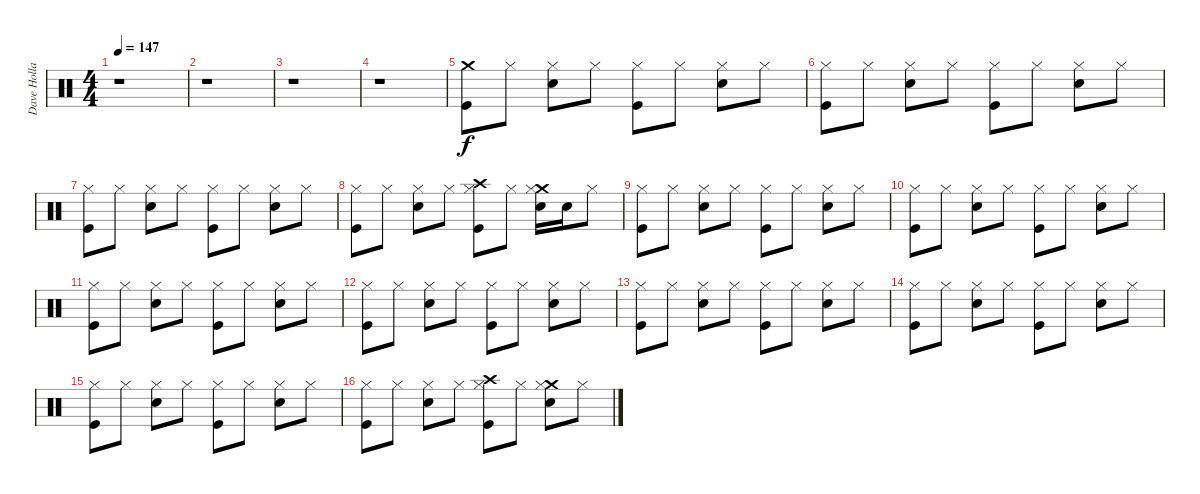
\track ("Dave Holland" "Dave Holla") {instrument percussion}
\staff {score}
\articulation defaults
\ts (4 4)
\tempo 147
\clef neutral
\ks c
r.1{dy f} |
r.1 |
r.1 |
r.1 |
("Kick (hit)" "Crash medium (hit)").8 "Hi-Hat (closed)".8 ("Electric Snare (hit)" "Hi-Hat (closed)").8 "Hi-Hat (closed)".8 ("Kick (hit)" "Hi-Hat (closed)").8 "Hi-Hat (closed)".8 ("Electric Snare (hit)" "Hi-Hat (closed)").8 "Hi-Hat (closed)".8 |
("Kick (hit)" "Hi-Hat (closed)").8 "Hi-Hat (closed)".8 ("Electric Snare (hit)" "Hi-Hat (closed)").8 "Hi-Hat (closed)".8 ("Kick (hit)" "Hi-Hat (closed)").8 "Hi-Hat (closed)".8 ("Electric Snare (hit)" "Hi-Hat (closed)").8 "Hi-Hat (closed)".8 |
("Kick (hit)" "Hi-Hat (closed)").8 "Hi-Hat (closed)".8 ("Electric Snare (hit)" "Hi-Hat (closed)").8 "Hi-Hat (closed)".8 ("Kick (hit)" "Hi-Hat (closed)").8 "Hi-Hat (closed)".8 ("Electric Snare (hit)" "Hi-Hat (closed)").8 "Hi-Hat (closed)".8 |
("Kick (hit)" "Hi-Hat (closed)").8 "Hi-Hat (closed)".8 ("Electric Snare (hit)" "Hi-Hat (closed)").8 "Hi-Hat (closed)".8 ("Kick (hit)" "Crash high (hit)" "Hi-Hat (closed)").8 "Hi-Hat (closed)".8 ("Electric Snare (hit)" "Crash medium (hit)" "Hi-Hat (closed)").16 "Electric Snare (hit)".16 "Hi-Hat (closed)".8 |
("Kick (hit)" "Hi-Hat (closed)").8 "Hi-Hat (closed)".8 ("Electric Snare (hit)" "Hi-Hat (closed)").8 "Hi-Hat (closed)".8 ("Kick (hit)" "Hi-Hat (closed)").8 "Hi-Hat (closed)".8 ("Electric Snare (hit)" "Hi-Hat (closed)").8 "Hi-Hat (closed)".8 |
("Kick (hit)" "Hi-Hat (closed)").8 "Hi-Hat (closed)".8 ("Electric Snare (hit)" "Hi-Hat (closed)").8 "Hi-Hat (closed)".8 ("Kick (hit)" "Hi-Hat (closed)").8 "Hi-Hat (closed)".8 ("Electric Snare (hit)" "Hi-Hat (closed)").8 "Hi-Hat (closed)".8 |
("Kick (hit)" "Hi-Hat (closed)").8 "Hi-Hat (closed)".8 ("Electric Snare (hit)" "Hi-Hat (closed)").8 "Hi-Hat (closed)".8 ("Kick (hit)" "Hi-Hat (closed)").8 "Hi-Hat (closed)".8 ("Electric Snare (hit)" "Hi-Hat (closed)").8 "Hi-Hat (closed)".8 |
("Kick (hit)" "Hi-Hat (closed)").8 "Hi-Hat (closed)".8 ("Electric Snare (hit)" "Hi-Hat (closed)").8 "Hi-Hat (closed)".8 ("Kick (hit)" "Hi-Hat (closed)").8 "Hi-Hat (closed)".8 ("Electric Snare (hit)" "Hi-Hat (closed)").8 "Hi-Hat (closed)".8 |
("Kick (hit)" "Hi-Hat (closed)").8 "Hi-Hat (closed)".8 ("Electric Snare (hit)" "Hi-Hat (closed)").8 "Hi-Hat (closed)".8 ("Kick (hit)" "Hi-Hat (closed)").8 "Hi-Hat (closed)".8 ("Electric Snare (hit)" "Hi-Hat (closed)").8 "Hi-Hat (closed)".8 |
("Kick (hit)" "Hi-Hat (closed)").8 "Hi-Hat (closed)".8 ("Electric Snare (hit)" "Hi-Hat (closed)").8 "Hi-Hat (closed)".8 ("Kick (hit)" "Hi-Hat (closed)").8 "Hi-Hat (closed)".8 ("Electric Snare (hit)" "Hi-Hat (closed)").8 "Hi-Hat (closed)".8 |
("Kick (hit)" "Hi-Hat (closed)").8 "Hi-Hat (closed)".8 ("Electric Snare (hit)" "Hi-Hat (closed)").8 "Hi-Hat (closed)".8 ("Kick (hit)" "Hi-Hat (closed)").8 "Hi-Hat (closed)".8 ("Electric Snare (hit)" "Hi-Hat (closed)").8 "Hi-Hat (closed)".8 |
("Kick (hit)" "Hi-Hat (closed)").8 "Hi-Hat (closed)".8 ("Electric Snare (hit)" "Hi-Hat (closed)").8 "Hi-Hat (closed)".8 ("Kick (hit)" "Crash high (hit)" "Hi-Hat (closed)").8 "Hi-Hat (closed)".8 ("Electric Snare (hit)" "Crash medium (hit)" "Hi-Hat (closed)").8 "Hi-Hat (closed)".8
